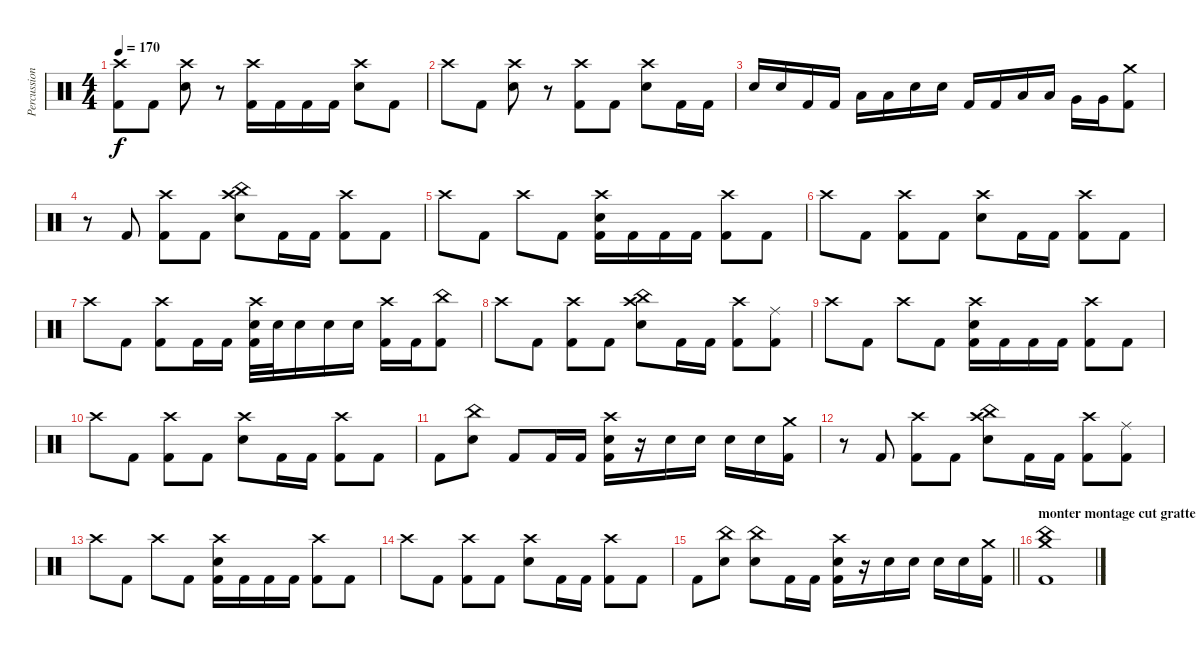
\track ("Percussions" "Percussion") {instrument percussion}
\staff {score}
\articulation defaults
\ts (4 4)
\tempo 170
\clef neutral
\ks c
("Crash high (hit)" "Kick (hit) 2").8{dy f} "Kick (hit) 2".8 ("Crash high (hit)" "Electric Snare (hit)").8 r.8 ("Crash high (hit)" "Kick (hit) 2").16 "Kick (hit) 2".16 "Kick (hit) 2".16 "Kick (hit) 2".16 ("Crash high (hit)" "Electric Snare (hit)").8 "Kick (hit) 2".8 |
"Crash high (hit)".8 "Kick (hit) 2".8 ("Crash high (hit)" "Electric Snare (hit)").8 r.8 ("Crash high (hit)" "Kick (hit) 2").8 "Kick (hit) 2".8 ("Crash high (hit)" "Electric Snare (hit)").8 "Kick (hit) 2".16 "Kick (hit) 2".16 |
"Electric Snare (hit)".16 "Electric Snare (hit)".16 "Kick (hit) 2".16 "Kick (hit) 2".16 "Low Tom (hit)".16 "Low Tom (hit)".16 "Electric Snare (hit)".16 "Electric Snare (hit)".16 "Kick (hit) 2".16 "Kick (hit) 2".16 "Low Tom (hit)".16 "Low Tom (hit)".16 "Very Low Tom (hit)".16 "Very Low Tom (hit)".16 ("Crash medium (hit)" "Kick (hit) 2").8 |
r.8 "Kick (hit) 2".8 ("Crash high (hit)" "Kick (hit) 2").8 "Kick (hit) 2".8 ("Crash high (hit)" "China (hit)" "Electric Snare (hit)").8 "Kick (hit) 2".16 "Kick (hit) 2".16 ("Crash high (hit)" "Kick (hit) 2").8 "Kick (hit) 2".8 |
"Crash high (hit)".8 "Kick (hit) 2".8 "Crash high (hit)".8 "Kick (hit) 2".8 ("Crash high (hit)" "Electric Snare (hit)" "Kick (hit) 2").16 "Kick (hit) 2".16 "Kick (hit) 2".16 "Kick (hit) 2".16 ("Crash high (hit)" "Kick (hit) 2").8 "Kick (hit) 2".8 |
"Crash high (hit)".8 "Kick (hit) 2".8 ("Crash high (hit)" "Kick (hit) 2").8 "Kick (hit) 2".8 ("Crash high (hit)" "Electric Snare (hit)").8 "Kick (hit) 2".16 "Kick (hit) 2".16 ("Crash high (hit)" "Kick (hit) 2").8 "Kick (hit) 2".8 |
"Crash high (hit)".8 "Kick (hit) 2".8 ("Crash high (hit)" "Kick (hit) 2").8 "Kick (hit) 2".16 "Kick (hit) 2".16 ("Crash high (hit)" "Electric Snare (hit)" "Kick (hit) 2").32 "Electric Snare (hit)".32 "Electric Snare (hit)".16 "Electric Snare (hit)".16 "Electric Snare (hit)".16 ("Crash high (hit)" "Kick (hit) 2").16 "Kick (hit) 2".16 ("China (hit)" "Kick (hit) 2").8 |
"Crash high (hit)".8 "Kick (hit) 2".8 ("Crash high (hit)" "Kick (hit) 2").8 "Kick (hit) 2".8 ("Crash high (hit)" "China (hit)" "Electric Snare (hit)").8 "Kick (hit) 2".16 "Kick (hit) 2".16 ("Crash high (hit)" "Kick (hit) 2").8 ("Ride (middle)" "Kick (hit) 2").8 |
"Crash high (hit)".8 "Kick (hit) 2".8 "Crash high (hit)".8 "Kick (hit) 2".8 ("Crash high (hit)" "Electric Snare (hit)" "Kick (hit) 2").16 "Kick (hit) 2".16 "Kick (hit) 2".16 "Kick (hit) 2".16 ("Crash high (hit)" "Kick (hit) 2").8 "Kick (hit) 2".8 |
"Crash high (hit)".8 "Kick (hit) 2".8 ("Crash high (hit)" "Kick (hit) 2").8 "Kick (hit) 2".8 ("Crash high (hit)" "Electric Snare (hit)").8 "Kick (hit) 2".16 "Kick (hit) 2".16 ("Crash high (hit)" "Kick (hit) 2").8 "Kick (hit) 2".8 |
"Kick (hit) 2".8 ("China (hit)" "Electric Snare (hit)").8 "Kick (hit) 2".8 "Kick (hit) 2".16 "Kick (hit) 2".16 ("Crash high (hit)" "Electric Snare (hit)" "Kick (hit) 2").16 r.16 "Electric Snare (hit)".16 "Electric Snare (hit)".16 "Electric Snare (hit)".16 "Electric Snare (hit)".16 ("Crash medium (hit)" "Kick (hit) 2").16 |
r.8 "Kick (hit) 2".8 ("Crash high (hit)" "Kick (hit) 2").8 "Kick (hit) 2".8 ("Crash high (hit)" "China (hit)" "Electric Snare (hit)").8 "Kick (hit) 2".16 "Kick (hit) 2".16 ("Crash high (hit)" "Kick (hit) 2").8 ("Ride (middle)" "Kick (hit) 2").8 |
"Crash high (hit)".8 "Kick (hit) 2".8 "Crash high (hit)".8 "Kick (hit) 2".8 ("Crash high (hit)" "Electric Snare (hit)" "Kick (hit) 2").16 "Kick (hit) 2".16 "Kick (hit) 2".16 "Kick (hit) 2".16 ("Crash high (hit)" "Kick (hit) 2").8 "Kick (hit) 2".8 |
"Crash high (hit)".8 "Kick (hit) 2".8 ("Crash high (hit)" "Kick (hit) 2").8 "Kick (hit) 2".8 ("Crash high (hit)" "Electric Snare (hit)").8 "Kick (hit) 2".16 "Kick (hit) 2".16 ("Crash high (hit)" "Kick (hit) 2").8 "Kick (hit) 2".8 |
\barLineRight lightlight "Kick (hit) 2".8
("China (hit)" "Electric Snare (hit)").8 ("China (hit)" "Electric Snare (hit)").8 "Kick (hit) 2".16 "Kick (hit) 2".16 ("Crash high (hit)" "Electric Snare (hit)" "Kick (hit) 2").16 r.16 "Electric Snare (hit)".16 "Electric Snare (hit)".16 "Electric Snare (hit)".16 "Electric Snare (hit)".16 ("Crash medium (hit)" "Kick (hit) 2").16 |
\section ("" "monter montage cut gratte")
("Kick (hit) 2" "China (hit)" "Crash medium (hit)").1
